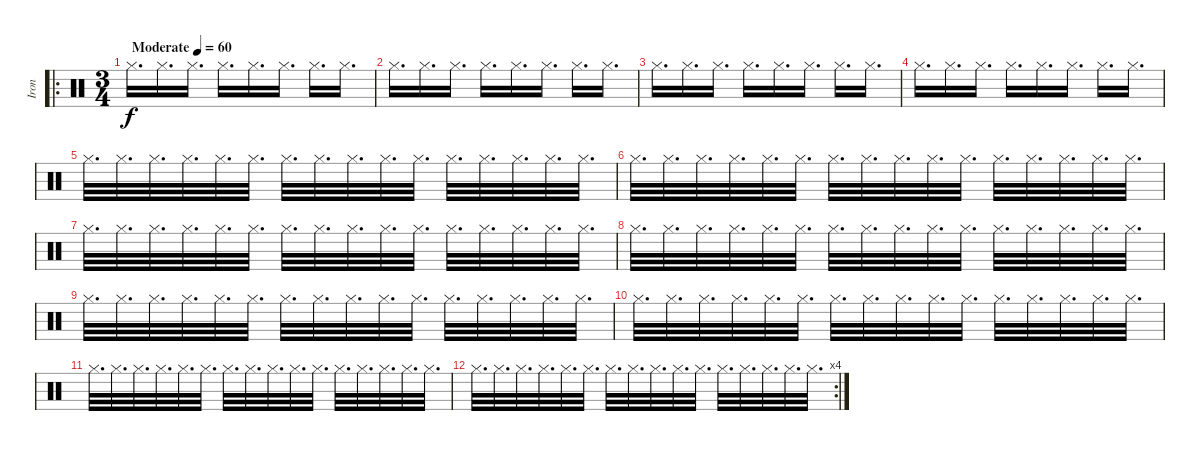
\track ("Iron" "Iron") {instrument percussion}
\staff
\articulation defaults
\ro
\ts (3 4)
\tempo (60 "Moderate")
\clef neutral
\ks c "Hi-Hat (closed)".16{d dy f} "Hi-Hat (closed)".16{d} "Hi-Hat (closed)".16{d} "Hi-Hat (closed)".16{d} "Hi-Hat (closed)".16{d} "Hi-Hat (closed)".16{d} "Hi-Hat (closed)".16{d} "Hi-Hat (closed)".16{d}
|
"Hi-Hat (closed)".16{d} "Hi-Hat (closed)".16{d} "Hi-Hat (closed)".16{d} "Hi-Hat (closed)".16{d} "Hi-Hat (closed)".16{d} "Hi-Hat (closed)".16{d} "Hi-Hat (closed)".16{d} "Hi-Hat (closed)".16{d} |
"Hi-Hat (closed)".16{d} "Hi-Hat (closed)".16{d} "Hi-Hat (closed)".16{d} "Hi-Hat (closed)".16{d} "Hi-Hat (closed)".16{d} "Hi-Hat (closed)".16{d} "Hi-Hat (closed)".16{d} "Hi-Hat (closed)".16{d} |
"Hi-Hat (closed)".16{d} "Hi-Hat (closed)".16{d} "Hi-Hat (closed)".16{d} "Hi-Hat (closed)".16{d} "Hi-Hat (closed)".16{d} "Hi-Hat (closed)".16{d} "Hi-Hat (closed)".16{d} "Hi-Hat (closed)".16{d} |
"Hi-Hat (closed)".32{d} "Hi-Hat (closed)".32{d} "Hi-Hat (closed)".32{d} "Hi-Hat (closed)".32{d} "Hi-Hat (closed)".32{d} "Hi-Hat (closed)".32{d} "Hi-Hat (closed)".32{d} "Hi-Hat (closed)".32{d} "Hi-Hat (closed)".32{d} "Hi-Hat (closed)".32{d} "Hi-Hat (closed)".32{d} "Hi-Hat (closed)".32{d} "Hi-Hat (closed)".32{d} "Hi-Hat (closed)".32{d} "Hi-Hat (closed)".32{d} "Hi-Hat (closed)".32{d} |
"Hi-Hat (closed)".32{d} "Hi-Hat (closed)".32{d} "Hi-Hat (closed)".32{d} "Hi-Hat (closed)".32{d} "Hi-Hat (closed)".32{d} "Hi-Hat (closed)".32{d} "Hi-Hat (closed)".32{d} "Hi-Hat (closed)".32{d} "Hi-Hat (closed)".32{d} "Hi-Hat (closed)".32{d} "Hi-Hat (closed)".32{d} "Hi-Hat (closed)".32{d} "Hi-Hat (closed)".32{d} "Hi-Hat (closed)".32{d} "Hi-Hat (closed)".32{d} "Hi-Hat (closed)".32{d} |
"Hi-Hat (closed)".32{d} "Hi-Hat (closed)".32{d} "Hi-Hat (closed)".32{d} "Hi-Hat (closed)".32{d} "Hi-Hat (closed)".32{d} "Hi-Hat (closed)".32{d} "Hi-Hat (closed)".32{d} "Hi-Hat (closed)".32{d} "Hi-Hat (closed)".32{d} "Hi-Hat (closed)".32{d} "Hi-Hat (closed)".32{d} "Hi-Hat (closed)".32{d} "Hi-Hat (closed)".32{d} "Hi-Hat (closed)".32{d} "Hi-Hat (closed)".32{d} "Hi-Hat (closed)".32{d} |
"Hi-Hat (closed)".32{d} "Hi-Hat (closed)".32{d} "Hi-Hat (closed)".32{d} "Hi-Hat (closed)".32{d} "Hi-Hat (closed)".32{d} "Hi-Hat (closed)".32{d} "Hi-Hat (closed)".32{d} "Hi-Hat (closed)".32{d} "Hi-Hat (closed)".32{d} "Hi-Hat (closed)".32{d} "Hi-Hat (closed)".32{d} "Hi-Hat (closed)".32{d} "Hi-Hat (closed)".32{d} "Hi-Hat (closed)".32{d} "Hi-Hat (closed)".32{d} "Hi-Hat (closed)".32{d} |
"Hi-Hat (closed)".32{d} "Hi-Hat (closed)".32{d} "Hi-Hat (closed)".32{d} "Hi-Hat (closed)".32{d} "Hi-Hat (closed)".32{d} "Hi-Hat (closed)".32{d} "Hi-Hat (closed)".32{d} "Hi-Hat (closed)".32{d} "Hi-Hat (closed)".32{d} "Hi-Hat (closed)".32{d} "Hi-Hat (closed)".32{d} "Hi-Hat (closed)".32{d} "Hi-Hat (closed)".32{d} "Hi-Hat (closed)".32{d} "Hi-Hat (closed)".32{d} "Hi-Hat (closed)".32{d} |
"Hi-Hat (closed)".32{d} "Hi-Hat (closed)".32{d} "Hi-Hat (closed)".32{d} "Hi-Hat (closed)".32{d} "Hi-Hat (closed)".32{d} "Hi-Hat (closed)".32{d} "Hi-Hat (closed)".32{d} "Hi-Hat (closed)".32{d} "Hi-Hat (closed)".32{d} "Hi-Hat (closed)".32{d} "Hi-Hat (closed)".32{d} "Hi-Hat (closed)".32{d} "Hi-Hat (closed)".32{d} "Hi-Hat (closed)".32{d} "Hi-Hat (closed)".32{d} "Hi-Hat (closed)".32{d} |
"Hi-Hat (closed)".32{d} "Hi-Hat (closed)".32{d} "Hi-Hat (closed)".32{d} "Hi-Hat (closed)".32{d} "Hi-Hat (closed)".32{d} "Hi-Hat (closed)".32{d} "Hi-Hat (closed)".32{d} "Hi-Hat (closed)".32{d} "Hi-Hat (closed)".32{d} "Hi-Hat (closed)".32{d} "Hi-Hat (closed)".32{d} "Hi-Hat (closed)".32{d} "Hi-Hat (closed)".32{d} "Hi-Hat (closed)".32{d} "Hi-Hat (closed)".32{d} "Hi-Hat (closed)".32{d} |
\rc 4 "Hi-Hat (closed)".32{d} "Hi-Hat (closed)".32{d} "Hi-Hat (closed)".32{d} "Hi-Hat (closed)".32{d} "Hi-Hat (closed)".32{d} "Hi-Hat (closed)".32{d} "Hi-Hat (closed)".32{d} "Hi-Hat (closed)".32{d} "Hi-Hat (closed)".32{d} "Hi-Hat (closed)".32{d} "Hi-Hat (closed)".32{d} "Hi-Hat (closed)".32{d} "Hi-Hat (closed)".32{d} "Hi-Hat (closed)".32{d} "Hi-Hat (closed)".32{d} "Hi-Hat (closed)".32{d}
